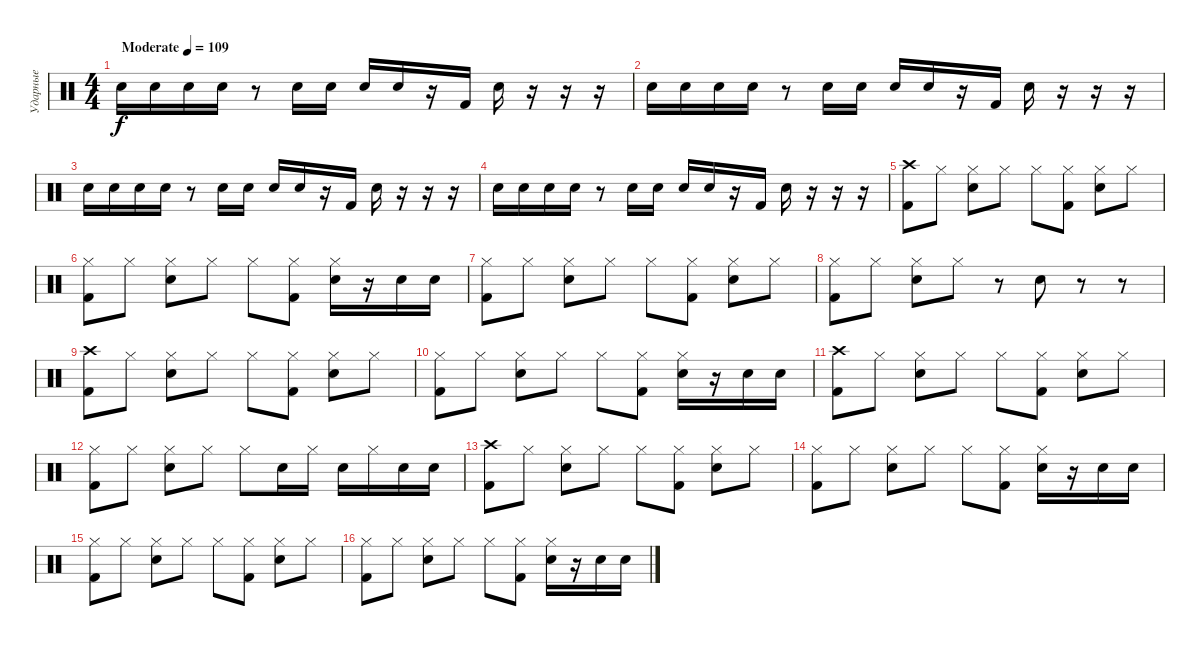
\track ("Ударные" "Ударные") {instrument percussion}
\staff {score}
\articulation defaults
\ts (4 4)
\tempo (109 "Moderate")
\clef neutral
\ks c "Electric Snare (hit)".16{dy f} "Electric Snare (hit)".16 "Electric Snare (hit)".16 "Electric Snare (hit)".16
r.8 "Electric Snare (hit)".16 "Electric Snare (hit)".16 "Electric Snare (hit)".16 "Electric Snare (hit)".16 r.16 "Kick (hit) 2".16 "Electric Snare (hit)".16 r.16 r.16 r.16 |
"Electric Snare (hit)".16 "Electric Snare (hit)".16 "Electric Snare (hit)".16 "Electric Snare (hit)".16 r.8 "Electric Snare (hit)".16 "Electric Snare (hit)".16 "Electric Snare (hit)".16 "Electric Snare (hit)".16 r.16 "Kick (hit) 2".16 "Electric Snare (hit)".16 r.16 r.16 r.16 |
"Electric Snare (hit)".16 "Electric Snare (hit)".16 "Electric Snare (hit)".16 "Electric Snare (hit)".16 r.8 "Electric Snare (hit)".16 "Electric Snare (hit)".16 "Electric Snare (hit)".16 "Electric Snare (hit)".16 r.16 "Kick (hit) 2".16 "Electric Snare (hit)".16 r.16 r.16 r.16 |
"Electric Snare (hit)".16 "Electric Snare (hit)".16 "Electric Snare (hit)".16 "Electric Snare (hit)".16 r.8 "Electric Snare (hit)".16 "Electric Snare (hit)".16 "Electric Snare (hit)".16 "Electric Snare (hit)".16 r.16 "Kick (hit) 2".16 "Electric Snare (hit)".16 r.16 r.16 r.16 |
("Kick (hit) 2" "Crash high (hit)").8 "Hi-Hat (closed)".8 ("Electric Snare (hit)" "Hi-Hat (closed)").8 "Hi-Hat (closed)".8 "Hi-Hat (closed)".8 ("Kick (hit) 2" "Hi-Hat (closed)").8 ("Electric Snare (hit)" "Hi-Hat (closed)").8 "Hi-Hat (closed)".8 |
("Kick (hit) 2" "Hi-Hat (closed)").8 "Hi-Hat (closed)".8 ("Electric Snare (hit)" "Hi-Hat (closed)").8 "Hi-Hat (closed)".8 "Hi-Hat (closed)".8 ("Kick (hit) 2" "Hi-Hat (closed)").8 ("Electric Snare (hit)" "Hi-Hat (closed)").16 r.16 "Electric Snare (hit)".16 "Electric Snare (hit)".16 |
("Kick (hit) 2" "Hi-Hat (closed)").8 "Hi-Hat (closed)".8 ("Electric Snare (hit)" "Hi-Hat (closed)").8 "Hi-Hat (closed)".8 "Hi-Hat (closed)".8 ("Kick (hit) 2" "Hi-Hat (closed)").8 ("Electric Snare (hit)" "Hi-Hat (closed)").8 "Hi-Hat (closed)".8 |
("Kick (hit) 2" "Hi-Hat (closed)").8 "Hi-Hat (closed)".8 ("Electric Snare (hit)" "Hi-Hat (closed)").8 "Hi-Hat (closed)".8 r.8 "Electric Snare (hit)".8 r.8 r.8 |
("Kick (hit) 2" "Crash high (hit)").8 "Hi-Hat (closed)".8 ("Electric Snare (hit)" "Hi-Hat (closed)").8 "Hi-Hat (closed)".8 "Hi-Hat (closed)".8 ("Kick (hit) 2" "Hi-Hat (closed)").8 ("Electric Snare (hit)" "Hi-Hat (closed)").8 "Hi-Hat (closed)".8 |
("Kick (hit) 2" "Hi-Hat (closed)").8 "Hi-Hat (closed)".8 ("Electric Snare (hit)" "Hi-Hat (closed)").8 "Hi-Hat (closed)".8 "Hi-Hat (closed)".8 ("Kick (hit) 2" "Hi-Hat (closed)").8 ("Electric Snare (hit)" "Hi-Hat (closed)").16 r.16 "Electric Snare (hit)".16 "Electric Snare (hit)".16 |
("Kick (hit) 2" "Crash high (hit)").8 "Hi-Hat (closed)".8 ("Electric Snare (hit)" "Hi-Hat (closed)").8 "Hi-Hat (closed)".8 "Hi-Hat (closed)".8 ("Kick (hit) 2" "Hi-Hat (closed)").8 ("Electric Snare (hit)" "Hi-Hat (closed)").8 "Hi-Hat (closed)".8 |
("Kick (hit) 2" "Hi-Hat (closed)").8 "Hi-Hat (closed)".8 ("Electric Snare (hit)" "Hi-Hat (closed)").8 "Hi-Hat (closed)".8 "Hi-Hat (closed)".8 "Electric Snare (hit)".16 "Hi-Hat (closed)".16 "Electric Snare (hit)".16 "Hi-Hat (closed)".16 "Electric Snare (hit)".16 "Electric Snare (hit)".16 |
("Kick (hit) 2" "Crash high (hit)").8 "Hi-Hat (closed)".8 ("Electric Snare (hit)" "Hi-Hat (closed)").8 "Hi-Hat (closed)".8 "Hi-Hat (closed)".8 ("Kick (hit) 2" "Hi-Hat (closed)").8 ("Electric Snare (hit)" "Hi-Hat (closed)").8 "Hi-Hat (closed)".8 |
("Kick (hit) 2" "Hi-Hat (closed)").8 "Hi-Hat (closed)".8 ("Electric Snare (hit)" "Hi-Hat (closed)").8 "Hi-Hat (closed)".8 "Hi-Hat (closed)".8 ("Kick (hit) 2" "Hi-Hat (closed)").8 ("Electric Snare (hit)" "Hi-Hat (closed)").16 r.16 "Electric Snare (hit)".16 "Electric Snare (hit)".16 |
("Kick (hit) 2" "Hi-Hat (closed)").8 "Hi-Hat (closed)".8 ("Electric Snare (hit)" "Hi-Hat (closed)").8 "Hi-Hat (closed)".8 "Hi-Hat (closed)".8 ("Kick (hit) 2" "Hi-Hat (closed)").8 ("Electric Snare (hit)" "Hi-Hat (closed)").8 "Hi-Hat (closed)".8 |
("Kick (hit) 2" "Hi-Hat (closed)").8 "Hi-Hat (closed)".8 ("Electric Snare (hit)" "Hi-Hat (closed)").8 "Hi-Hat (closed)".8 "Hi-Hat (closed)".8 ("Kick (hit) 2" "Hi-Hat (closed)").8 ("Electric Snare (hit)" "Hi-Hat (closed)").16 r.16 "Electric Snare (hit)".16 "Electric Snare (hit)".16
